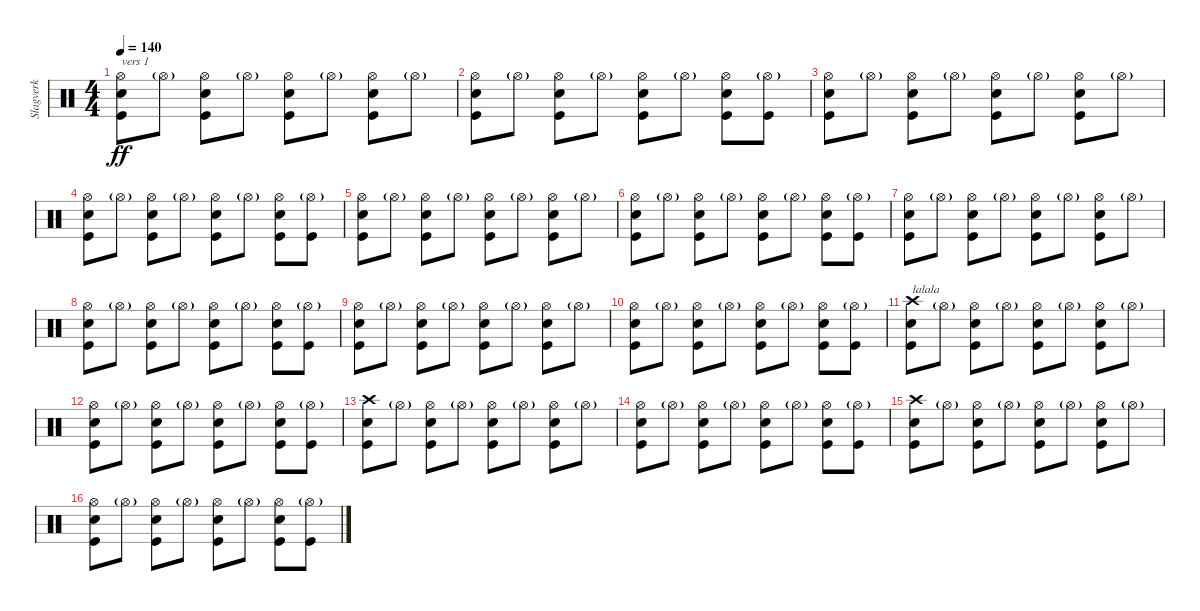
\track ("Slagverk" "Slagverk") {instrument percussion}
\staff {score}
\articulation defaults
\ts (4 4)
\tempo 140
\clef neutral
\ks c
("Hi-Hat (open)" "Kick (hit)" "Snare (hit) 2").8{txt "vers 1" dy ff} "Hi-Hat (open)"{g}.8 ("Hi-Hat (open)" "Kick (hit)" "Snare (hit) 2").8 "Hi-Hat (open)"{g}.8 ("Hi-Hat (open)" "Kick (hit)" "Snare (hit) 2").8 "Hi-Hat (open)"{g}.8 ("Hi-Hat (open)" "Kick (hit)" "Snare (hit) 2").8 "Hi-Hat (open)"{g}.8 |
("Hi-Hat (open)" "Kick (hit)" "Snare (hit) 2").8 "Hi-Hat (open)"{g}.8 ("Hi-Hat (open)" "Kick (hit)" "Snare (hit) 2").8 "Hi-Hat (open)"{g}.8 ("Hi-Hat (open)" "Kick (hit)" "Snare (hit) 2").8 "Hi-Hat (open)"{g}.8 ("Hi-Hat (open)" "Kick (hit)" "Snare (hit) 2").8 ("Hi-Hat (open)"{g} "Kick (hit)").8 |
("Hi-Hat (open)" "Kick (hit)" "Snare (hit) 2").8 "Hi-Hat (open)"{g}.8 ("Hi-Hat (open)" "Kick (hit)" "Snare (hit) 2").8 "Hi-Hat (open)"{g}.8 ("Hi-Hat (open)" "Kick (hit)" "Snare (hit) 2").8 "Hi-Hat (open)"{g}.8 ("Hi-Hat (open)" "Kick (hit)" "Snare (hit) 2").8 "Hi-Hat (open)"{g}.8 |
("Hi-Hat (open)" "Kick (hit)" "Snare (hit) 2").8 "Hi-Hat (open)"{g}.8 ("Hi-Hat (open)" "Kick (hit)" "Snare (hit) 2").8 "Hi-Hat (open)"{g}.8 ("Hi-Hat (open)" "Kick (hit)" "Snare (hit) 2").8 "Hi-Hat (open)"{g}.8 ("Hi-Hat (open)" "Kick (hit)" "Snare (hit) 2").8 ("Hi-Hat (open)"{g} "Kick (hit)").8 |
("Hi-Hat (open)" "Kick (hit)" "Snare (hit) 2").8 "Hi-Hat (open)"{g}.8 ("Hi-Hat (open)" "Kick (hit)" "Snare (hit) 2").8 "Hi-Hat (open)"{g}.8 ("Hi-Hat (open)" "Kick (hit)" "Snare (hit) 2").8 "Hi-Hat (open)"{g}.8 ("Hi-Hat (open)" "Kick (hit)" "Snare (hit) 2").8 "Hi-Hat (open)"{g}.8 |
("Hi-Hat (open)" "Kick (hit)" "Snare (hit) 2").8 "Hi-Hat (open)"{g}.8 ("Hi-Hat (open)" "Kick (hit)" "Snare (hit) 2").8 "Hi-Hat (open)"{g}.8 ("Hi-Hat (open)" "Kick (hit)" "Snare (hit) 2").8 "Hi-Hat (open)"{g}.8 ("Hi-Hat (open)" "Kick (hit)" "Snare (hit) 2").8 ("Hi-Hat (open)"{g} "Kick (hit)").8 |
("Hi-Hat (open)" "Kick (hit)" "Snare (hit) 2").8 "Hi-Hat (open)"{g}.8 ("Hi-Hat (open)" "Kick (hit)" "Snare (hit) 2").8 "Hi-Hat (open)"{g}.8 ("Hi-Hat (open)" "Kick (hit)" "Snare (hit) 2").8 "Hi-Hat (open)"{g}.8 ("Hi-Hat (open)" "Kick (hit)" "Snare (hit) 2").8 "Hi-Hat (open)"{g}.8 |
("Hi-Hat (open)" "Kick (hit)" "Snare (hit) 2").8 "Hi-Hat (open)"{g}.8 ("Hi-Hat (open)" "Kick (hit)" "Snare (hit) 2").8 "Hi-Hat (open)"{g}.8 ("Hi-Hat (open)" "Kick (hit)" "Snare (hit) 2").8 "Hi-Hat (open)"{g}.8 ("Hi-Hat (open)" "Kick (hit)" "Snare (hit) 2").8 ("Hi-Hat (open)"{g} "Kick (hit)").8 |
("Hi-Hat (open)" "Kick (hit)" "Snare (hit) 2").8 "Hi-Hat (open)"{g}.8 ("Hi-Hat (open)" "Kick (hit)" "Snare (hit) 2").8 "Hi-Hat (open)"{g}.8 ("Hi-Hat (open)" "Kick (hit)" "Snare (hit) 2").8 "Hi-Hat (open)"{g}.8 ("Hi-Hat (open)" "Kick (hit)" "Snare (hit) 2").8 "Hi-Hat (open)"{g}.8 |
("Hi-Hat (open)" "Kick (hit)" "Snare (hit) 2").8 "Hi-Hat (open)"{g}.8 ("Hi-Hat (open)" "Kick (hit)" "Snare (hit) 2").8 "Hi-Hat (open)"{g}.8 ("Hi-Hat (open)" "Kick (hit)" "Snare (hit) 2").8 "Hi-Hat (open)"{g}.8 ("Hi-Hat (open)" "Kick (hit)" "Snare (hit) 2").8 ("Hi-Hat (open)"{g} "Kick (hit)").8 |
("Crash high (hit)" "Kick (hit)" "Snare (hit) 2").8{txt "lalala"} "Hi-Hat (open)"{g}.8 ("Hi-Hat (open)" "Kick (hit)" "Snare (hit) 2").8 "Hi-Hat (open)"{g}.8 ("Hi-Hat (open)" "Kick (hit)" "Snare (hit) 2").8 "Hi-Hat (open)"{g}.8 ("Hi-Hat (open)" "Kick (hit)" "Snare (hit) 2").8 "Hi-Hat (open)"{g}.8 |
("Hi-Hat (open)" "Kick (hit)" "Snare (hit) 2").8 "Hi-Hat (open)"{g}.8 ("Hi-Hat (open)" "Kick (hit)" "Snare (hit) 2").8 "Hi-Hat (open)"{g}.8 ("Hi-Hat (open)" "Kick (hit)" "Snare (hit) 2").8 "Hi-Hat (open)"{g}.8 ("Hi-Hat (open)" "Kick (hit)" "Snare (hit) 2").8 ("Hi-Hat (open)"{g} "Kick (hit)").8 |
("Crash high (hit)" "Kick (hit)" "Snare (hit) 2").8 "Hi-Hat (open)"{g}.8 ("Hi-Hat (open)" "Kick (hit)" "Snare (hit) 2").8 "Hi-Hat (open)"{g}.8 ("Hi-Hat (open)" "Kick (hit)" "Snare (hit) 2").8 "Hi-Hat (open)"{g}.8 ("Hi-Hat (open)" "Kick (hit)" "Snare (hit) 2").8 "Hi-Hat (open)"{g}.8 |
("Hi-Hat (open)" "Kick (hit)" "Snare (hit) 2").8 "Hi-Hat (open)"{g}.8 ("Hi-Hat (open)" "Kick (hit)" "Snare (hit) 2").8 "Hi-Hat (open)"{g}.8 ("Hi-Hat (open)" "Kick (hit)" "Snare (hit) 2").8 "Hi-Hat (open)"{g}.8 ("Hi-Hat (open)" "Kick (hit)" "Snare (hit) 2").8 ("Hi-Hat (open)"{g} "Kick (hit)").8 |
("Crash high (hit)" "Kick (hit)" "Snare (hit) 2").8 "Hi-Hat (open)"{g}.8 ("Hi-Hat (open)" "Kick (hit)" "Snare (hit) 2").8 "Hi-Hat (open)"{g}.8 ("Hi-Hat (open)" "Kick (hit)" "Snare (hit) 2").8 "Hi-Hat (open)"{g}.8 ("Hi-Hat (open)" "Kick (hit)" "Snare (hit) 2").8 "Hi-Hat (open)"{g}.8 |
("Hi-Hat (open)" "Kick (hit)" "Snare (hit) 2").8 "Hi-Hat (open)"{g}.8 ("Hi-Hat (open)" "Kick (hit)" "Snare (hit) 2").8 "Hi-Hat (open)"{g}.8 ("Hi-Hat (open)" "Kick (hit)" "Snare (hit) 2").8 "Hi-Hat (open)"{g}.8 ("Hi-Hat (open)" "Kick (hit)" "Snare (hit) 2").8 ("Hi-Hat (open)"{g} "Kick (hit)").8
